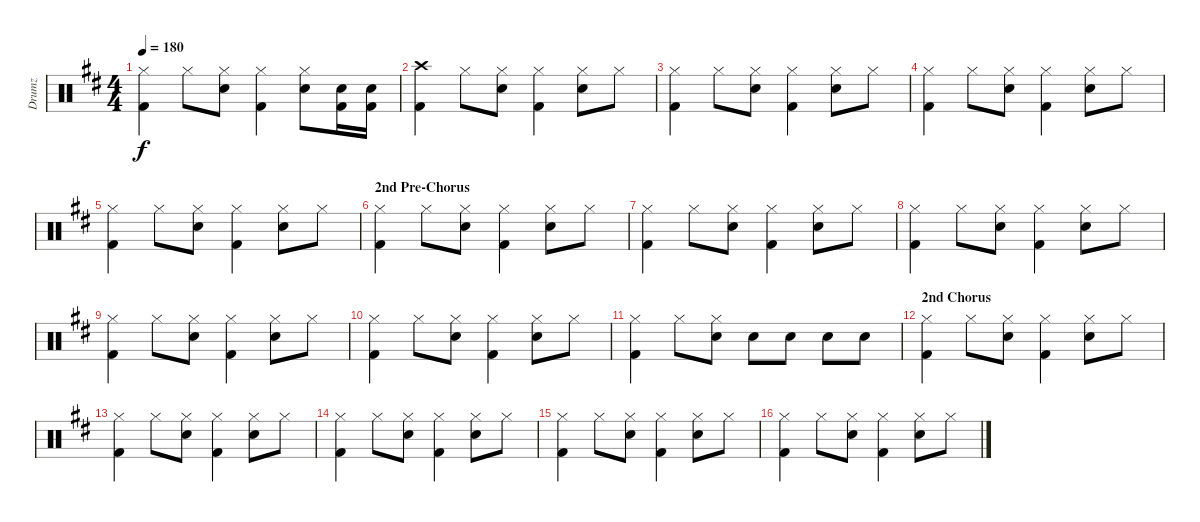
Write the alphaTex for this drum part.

\track ("Drumz" "Drumz") {instrument percussion}
\staff {score}
\articulation defaults
\ts (4 4)
\tempo 180
\clef neutral
\ks d
("Hi-Hat (closed)" "Kick (hit) 2").4{dy f} "Hi-Hat (closed)".8 ("Hi-Hat (closed)" "Snare (hit) 2").8 ("Hi-Hat (closed)" "Kick (hit) 2").4 ("Hi-Hat (closed)" "Snare (hit) 2").8 ("Kick (hit) 2" "Snare (hit) 2").16 ("Kick (hit) 2" "Snare (hit) 2").16 |
("Crash high (hit)" "Kick (hit) 2").4 "Hi-Hat (closed)".8 ("Hi-Hat (closed)" "Snare (hit) 2").8 ("Hi-Hat (closed)" "Kick (hit) 2").4 ("Hi-Hat (closed)" "Snare (hit) 2").8 "Hi-Hat (closed)".8 |
("Hi-Hat (closed)" "Kick (hit) 2").4 "Hi-Hat (closed)".8 ("Hi-Hat (closed)" "Snare (hit) 2").8 ("Hi-Hat (closed)" "Kick (hit) 2").4 ("Hi-Hat (closed)" "Snare (hit) 2").8 "Hi-Hat (closed)".8 |
("Hi-Hat (closed)" "Kick (hit) 2").4 "Hi-Hat (closed)".8 ("Hi-Hat (closed)" "Snare (hit) 2").8 ("Hi-Hat (closed)" "Kick (hit) 2").4 ("Hi-Hat (closed)" "Snare (hit) 2").8 "Hi-Hat (closed)".8 |
("Hi-Hat (closed)" "Kick (hit) 2").4 "Hi-Hat (closed)".8 ("Hi-Hat (closed)" "Snare (hit) 2").8 ("Hi-Hat (closed)" "Kick (hit) 2").4 ("Hi-Hat (closed)" "Snare (hit) 2").8 "Hi-Hat (closed)".8 |
\section ("" "2nd Pre-Chorus")
("Hi-Hat (closed)" "Kick (hit) 2").4 "Hi-Hat (closed)".8 ("Hi-Hat (closed)" "Snare (hit) 2").8 ("Hi-Hat (closed)" "Kick (hit) 2").4 ("Hi-Hat (closed)" "Snare (hit) 2").8 "Hi-Hat (closed)".8 |
("Hi-Hat (closed)" "Kick (hit) 2").4 "Hi-Hat (closed)".8 ("Hi-Hat (closed)" "Snare (hit) 2").8 ("Hi-Hat (closed)" "Kick (hit) 2").4 ("Hi-Hat (closed)" "Snare (hit) 2").8 "Hi-Hat (closed)".8 |
("Hi-Hat (closed)" "Kick (hit) 2").4 "Hi-Hat (closed)".8 ("Hi-Hat (closed)" "Snare (hit) 2").8 ("Hi-Hat (closed)" "Kick (hit) 2").4 ("Hi-Hat (closed)" "Snare (hit) 2").8 "Hi-Hat (closed)".8 |
("Hi-Hat (closed)" "Kick (hit) 2").4 "Hi-Hat (closed)".8 ("Hi-Hat (closed)" "Snare (hit) 2").8 ("Hi-Hat (closed)" "Kick (hit) 2").4 ("Hi-Hat (closed)" "Snare (hit) 2").8 "Hi-Hat (closed)".8 |
("Hi-Hat (closed)" "Kick (hit) 2").4 "Hi-Hat (closed)".8 ("Hi-Hat (closed)" "Snare (hit) 2").8 ("Hi-Hat (closed)" "Kick (hit) 2").4 ("Hi-Hat (closed)" "Snare (hit) 2").8 "Hi-Hat (closed)".8 |
("Hi-Hat (closed)" "Kick (hit) 2").4 "Hi-Hat (closed)".8 ("Hi-Hat (closed)" "Snare (hit) 2").8 "Snare (hit) 2".8 "Snare (hit) 2".8 "Snare (hit) 2".8 "Snare (hit) 2".8 |
\section ("" "2nd Chorus")
("Hi-Hat (closed)" "Kick (hit) 2").4 "Hi-Hat (closed)".8 ("Hi-Hat (closed)" "Snare (hit) 2").8 ("Hi-Hat (closed)" "Kick (hit) 2").4 ("Hi-Hat (closed)" "Snare (hit) 2").8 "Hi-Hat (closed)".8 |
("Hi-Hat (closed)" "Kick (hit) 2").4 "Hi-Hat (closed)".8 ("Hi-Hat (closed)" "Snare (hit) 2").8 ("Hi-Hat (closed)" "Kick (hit) 2").4 ("Hi-Hat (closed)" "Snare (hit) 2").8 "Hi-Hat (closed)".8 |
("Hi-Hat (closed)" "Kick (hit) 2").4 "Hi-Hat (closed)".8 ("Hi-Hat (closed)" "Snare (hit) 2").8 ("Hi-Hat (closed)" "Kick (hit) 2").4 ("Hi-Hat (closed)" "Snare (hit) 2").8 "Hi-Hat (closed)".8 |
("Hi-Hat (closed)" "Kick (hit) 2").4 "Hi-Hat (closed)".8 ("Hi-Hat (closed)" "Snare (hit) 2").8 ("Hi-Hat (closed)" "Kick (hit) 2").4 ("Hi-Hat (closed)" "Snare (hit) 2").8 "Hi-Hat (closed)".8 |
("Hi-Hat (closed)" "Kick (hit) 2").4 "Hi-Hat (closed)".8 ("Hi-Hat (closed)" "Snare (hit) 2").8 ("Hi-Hat (closed)" "Kick (hit) 2").4 ("Hi-Hat (closed)" "Snare (hit) 2").8 "Hi-Hat (closed)".8
